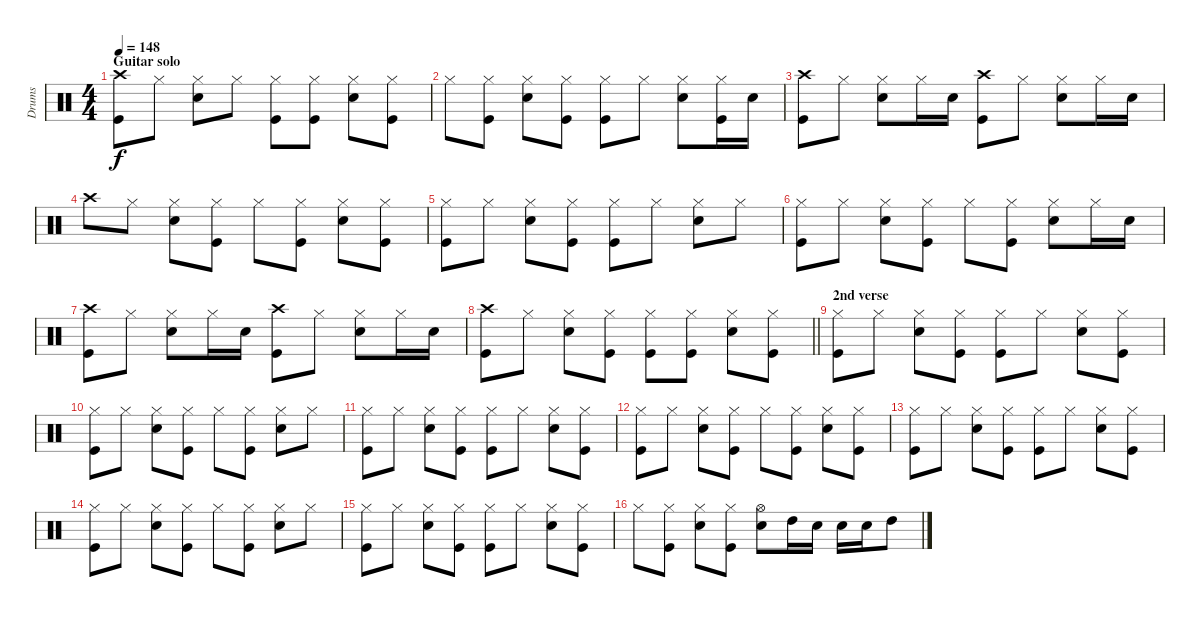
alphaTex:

\track ("Drums" "Drums") {instrument percussion}
\staff
\articulation defaults
\ts (4 4)
\section ("" "Guitar solo")
\tempo 148
\clef neutral
\ks c
("Crash high (hit)" "Kick (hit)").8{dy f} "Hi-Hat (closed)".8 ("Hi-Hat (closed)" "Snare (hit) 2").8 "Hi-Hat (closed)".8 ("Hi-Hat (closed)" "Kick (hit)").8 ("Hi-Hat (closed)" "Kick (hit)").8 ("Hi-Hat (closed)" "Snare (hit) 2").8 ("Hi-Hat (closed)" "Kick (hit)").8 |
"Hi-Hat (closed)".8 ("Hi-Hat (closed)" "Kick (hit)").8 ("Hi-Hat (closed)" "Snare (hit) 2").8 ("Hi-Hat (closed)" "Kick (hit)").8 ("Hi-Hat (closed)" "Kick (hit)").8 "Hi-Hat (closed)".8 ("Hi-Hat (closed)" "Snare (hit) 2").8 ("Hi-Hat (closed)" "Kick (hit)").16 "Snare (hit) 2".16 |
("Crash high (hit)" "Kick (hit)").8 "Hi-Hat (closed)".8 ("Hi-Hat (closed)" "Snare (hit) 2").8 "Hi-Hat (closed)".16 "Snare (hit) 2".16 ("Crash high (hit)" "Kick (hit)").8 "Hi-Hat (closed)".8 ("Hi-Hat (closed)" "Snare (hit) 2").8 "Hi-Hat (closed)".16 "Snare (hit) 2".16 |
"Crash high (hit)".8 "Hi-Hat (closed)".8 ("Hi-Hat (closed)" "Snare (hit) 2").8 ("Hi-Hat (closed)" "Kick (hit)").8 "Hi-Hat (closed)".8 ("Hi-Hat (closed)" "Kick (hit)").8 ("Hi-Hat (closed)" "Snare (hit) 2").8 ("Hi-Hat (closed)" "Kick (hit)").8 |
("Hi-Hat (closed)" "Kick (hit)").8 "Hi-Hat (closed)".8 ("Hi-Hat (closed)" "Snare (hit) 2").8 ("Hi-Hat (closed)" "Kick (hit)").8 ("Hi-Hat (closed)" "Kick (hit)").8 "Hi-Hat (closed)".8 ("Hi-Hat (closed)" "Snare (hit) 2").8 "Hi-Hat (closed)".8 |
("Hi-Hat (closed)" "Kick (hit)").8 "Hi-Hat (closed)".8 ("Hi-Hat (closed)" "Snare (hit) 2").8 ("Hi-Hat (closed)" "Kick (hit)").8 "Hi-Hat (closed)".8 ("Hi-Hat (closed)" "Kick (hit)").8 ("Hi-Hat (closed)" "Snare (hit) 2").8 "Hi-Hat (closed)".16 "Snare (hit) 2".16 |
("Crash high (hit)" "Kick (hit)").8 "Hi-Hat (closed)".8 ("Hi-Hat (closed)" "Snare (hit) 2").8 "Hi-Hat (closed)".16 "Snare (hit) 2".16 ("Crash high (hit)" "Kick (hit)").8 "Hi-Hat (closed)".8 ("Hi-Hat (closed)" "Snare (hit) 2").8 "Hi-Hat (closed)".16 "Snare (hit) 2".16 |
\barLineRight lightlight
("Crash high (hit)" "Kick (hit)").8 "Hi-Hat (closed)".8 ("Hi-Hat (closed)" "Snare (hit) 2").8 ("Hi-Hat (closed)" "Kick (hit)").8 ("Hi-Hat (closed)" "Kick (hit)").8 ("Hi-Hat (closed)" "Kick (hit)").8 ("Hi-Hat (closed)" "Snare (hit) 2").8 ("Hi-Hat (closed)" "Kick (hit)").8 |
\section ("" "2nd verse")
("Hi-Hat (closed)" "Kick (hit)").8 "Hi-Hat (closed)".8 ("Hi-Hat (closed)" "Snare (hit) 2").8 ("Hi-Hat (closed)" "Kick (hit)").8 ("Hi-Hat (closed)" "Kick (hit)").8 "Hi-Hat (closed)".8 ("Hi-Hat (closed)" "Snare (hit) 2").8 ("Hi-Hat (closed)" "Kick (hit)").8 |
("Hi-Hat (closed)" "Kick (hit)").8 "Hi-Hat (closed)".8 ("Hi-Hat (closed)" "Snare (hit) 2").8 ("Hi-Hat (closed)" "Kick (hit)").8 "Hi-Hat (closed)".8 ("Hi-Hat (closed)" "Kick (hit)").8 ("Hi-Hat (closed)" "Snare (hit) 2").8 "Hi-Hat (closed)".8 |
("Hi-Hat (closed)" "Kick (hit)").8 "Hi-Hat (closed)".8 ("Hi-Hat (closed)" "Snare (hit) 2").8 ("Hi-Hat (closed)" "Kick (hit)").8 ("Hi-Hat (closed)" "Kick (hit)").8 "Hi-Hat (closed)".8 ("Hi-Hat (closed)" "Snare (hit) 2").8 ("Hi-Hat (closed)" "Kick (hit)").8 |
("Hi-Hat (closed)" "Kick (hit)").8 "Hi-Hat (closed)".8 ("Hi-Hat (closed)" "Snare (hit) 2").8 ("Hi-Hat (closed)" "Kick (hit)").8 "Hi-Hat (closed)".8 ("Hi-Hat (closed)" "Kick (hit)").8 ("Hi-Hat (closed)" "Snare (hit) 2").8 ("Hi-Hat (closed)" "Kick (hit)").8 |
("Hi-Hat (closed)" "Kick (hit)").8 "Hi-Hat (closed)".8 ("Hi-Hat (closed)" "Snare (hit) 2").8 ("Hi-Hat (closed)" "Kick (hit)").8 ("Hi-Hat (closed)" "Kick (hit)").8 "Hi-Hat (closed)".8 ("Hi-Hat (closed)" "Snare (hit) 2").8 ("Hi-Hat (closed)" "Kick (hit)").8 |
("Hi-Hat (closed)" "Kick (hit)").8 "Hi-Hat (closed)".8 ("Hi-Hat (closed)" "Snare (hit) 2").8 ("Hi-Hat (closed)" "Kick (hit)").8 "Hi-Hat (closed)".8 ("Hi-Hat (closed)" "Kick (hit)").8 ("Hi-Hat (closed)" "Snare (hit) 2").8 "Hi-Hat (closed)".8 |
("Hi-Hat (closed)" "Kick (hit)").8 "Hi-Hat (closed)".8 ("Hi-Hat (closed)" "Snare (hit) 2").8 ("Hi-Hat (closed)" "Kick (hit)").8 ("Hi-Hat (closed)" "Kick (hit)").8 "Hi-Hat (closed)".8 ("Hi-Hat (closed)" "Snare (hit) 2").8 ("Hi-Hat (closed)" "Kick (hit)").8 |
"Hi-Hat (closed)".8 ("Hi-Hat (closed)" "Kick (hit)").8 ("Hi-Hat (closed)" "Snare (hit) 2").8 ("Hi-Hat (closed)" "Kick (hit)").8 ("Hi-Hat (open)" "Snare (hit) 2").8 "High Tom (hit)".16 "Snare (hit) 2".16 "Snare (hit) 2".16 "Snare (hit) 2".16 "High Tom (hit)".8
